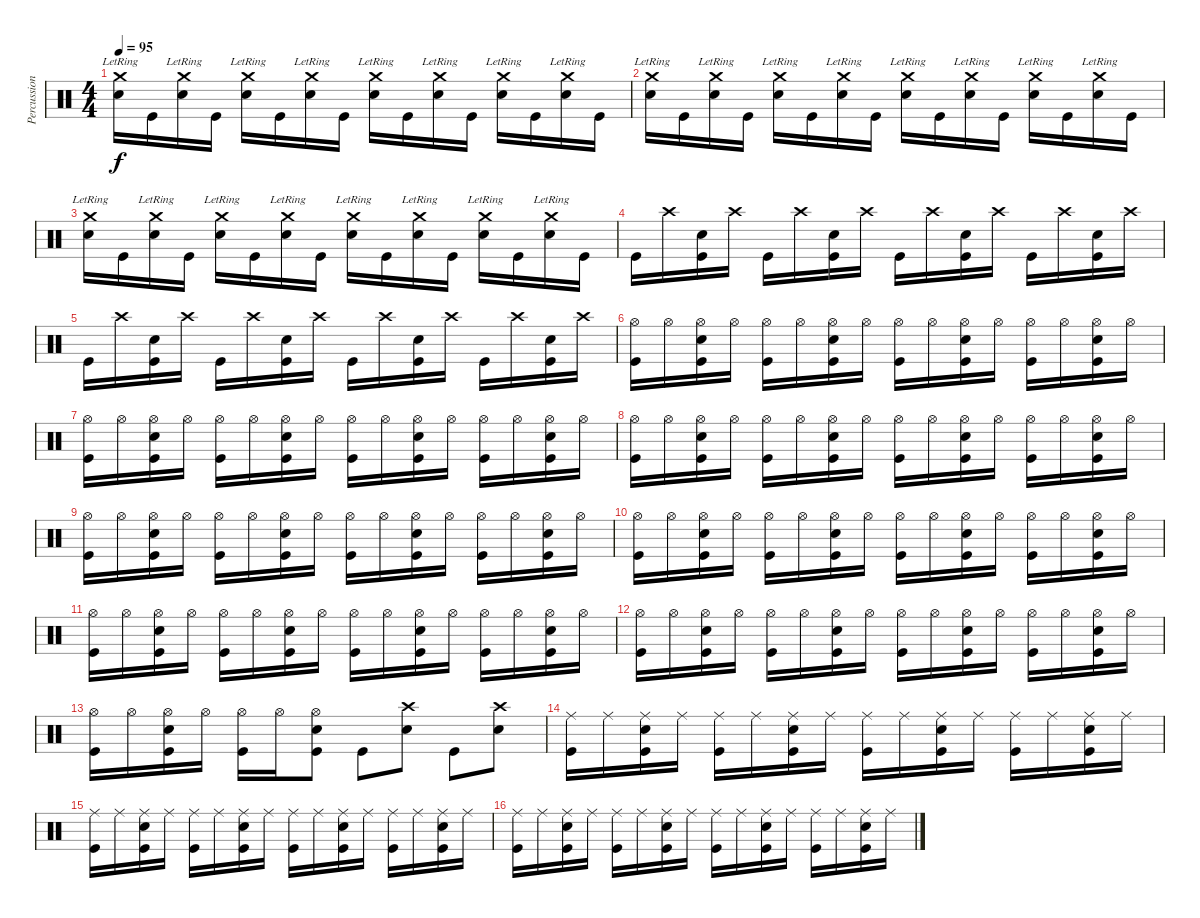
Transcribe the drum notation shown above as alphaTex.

\track ("Percussion" "Percussion") {instrument percussion}
\staff {score}
\articulation defaults
\ts (4 4)
\tempo 95
\clef neutral
\ks c
("Crash medium (hit)"{lr} "Snare (hit) 2").16{dy f} "Kick (hit)".16 ("Crash medium (hit)"{lr} "Snare (hit) 2").16 "Kick (hit)".16 ("Crash medium (hit)"{lr} "Snare (hit) 2").16 "Kick (hit)".16 ("Crash medium (hit)"{lr} "Snare (hit) 2").16 "Kick (hit)".16 ("Crash medium (hit)"{lr} "Snare (hit) 2").16 "Kick (hit)".16 ("Crash medium (hit)"{lr} "Snare (hit) 2").16 "Kick (hit)".16 ("Crash medium (hit)"{lr} "Snare (hit) 2").16 "Kick (hit)".16 ("Crash medium (hit)"{lr} "Snare (hit) 2").16 "Kick (hit)".16 |
("Crash medium (hit)"{lr} "Snare (hit) 2").16 "Kick (hit)".16 ("Crash medium (hit)"{lr} "Snare (hit) 2").16 "Kick (hit)".16 ("Crash medium (hit)"{lr} "Snare (hit) 2").16 "Kick (hit)".16 ("Crash medium (hit)"{lr} "Snare (hit) 2").16 "Kick (hit)".16 ("Crash medium (hit)"{lr} "Snare (hit) 2").16 "Kick (hit)".16 ("Crash medium (hit)"{lr} "Snare (hit) 2").16 "Kick (hit)".16 ("Crash medium (hit)"{lr} "Snare (hit) 2").16 "Kick (hit)".16 ("Crash medium (hit)"{lr} "Snare (hit) 2").16 "Kick (hit)".16 |
("Crash medium (hit)"{lr} "Snare (hit) 2").16 "Kick (hit)".16 ("Crash medium (hit)"{lr} "Snare (hit) 2").16 "Kick (hit)".16 ("Crash medium (hit)"{lr} "Snare (hit) 2").16 "Kick (hit)".16 ("Crash medium (hit)"{lr} "Snare (hit) 2").16 "Kick (hit)".16 ("Crash medium (hit)"{lr} "Snare (hit) 2").16 "Kick (hit)".16 ("Crash medium (hit)"{lr} "Snare (hit) 2").16 "Kick (hit)".16 ("Crash medium (hit)"{lr} "Snare (hit) 2").16 "Kick (hit)".16 ("Crash medium (hit)"{lr} "Snare (hit) 2").16 "Kick (hit)".16 |
"Kick (hit)".16 "Crash high (hit)".16 ("Snare (hit) 2" "Kick (hit)").16 "Crash high (hit)".16 "Kick (hit)".16 "Crash high (hit)".16 ("Snare (hit) 2" "Kick (hit)").16 "Crash high (hit)".16 "Kick (hit)".16 "Crash high (hit)".16 ("Snare (hit) 2" "Kick (hit)").16 "Crash high (hit)".16 "Kick (hit)".16 "Crash high (hit)".16 ("Snare (hit) 2" "Kick (hit)").16 "Crash high (hit)".16 |
"Kick (hit)".16 "Crash high (hit)".16 ("Snare (hit) 2" "Kick (hit)").16 "Crash high (hit)".16 "Kick (hit)".16 "Crash high (hit)".16 ("Snare (hit) 2" "Kick (hit)").16 "Crash high (hit)".16 "Kick (hit)".16 "Crash high (hit)".16 ("Snare (hit) 2" "Kick (hit)").16 "Crash high (hit)".16 "Kick (hit)".16 "Crash high (hit)".16 ("Snare (hit) 2" "Kick (hit)").16 "Crash high (hit)".16 |
("Hi-Hat (open)" "Kick (hit)").16 "Hi-Hat (open)".16 ("Hi-Hat (open)" "Snare (hit) 2" "Kick (hit)").16 "Hi-Hat (open)".16 ("Hi-Hat (open)" "Kick (hit)").16 "Hi-Hat (open)".16 ("Hi-Hat (open)" "Snare (hit) 2" "Kick (hit)").16 "Hi-Hat (open)".16 ("Hi-Hat (open)" "Kick (hit)").16 "Hi-Hat (open)".16 ("Hi-Hat (open)" "Snare (hit) 2" "Kick (hit)").16 "Hi-Hat (open)".16 ("Hi-Hat (open)" "Kick (hit)").16 "Hi-Hat (open)".16 ("Hi-Hat (open)" "Snare (hit) 2" "Kick (hit)").16 "Hi-Hat (open)".16 |
("Hi-Hat (open)" "Kick (hit)").16 "Hi-Hat (open)".16 ("Hi-Hat (open)" "Snare (hit) 2" "Kick (hit)").16 "Hi-Hat (open)".16 ("Hi-Hat (open)" "Kick (hit)").16 "Hi-Hat (open)".16 ("Hi-Hat (open)" "Snare (hit) 2" "Kick (hit)").16 "Hi-Hat (open)".16 ("Hi-Hat (open)" "Kick (hit)").16 "Hi-Hat (open)".16 ("Hi-Hat (open)" "Snare (hit) 2" "Kick (hit)").16 "Hi-Hat (open)".16 ("Hi-Hat (open)" "Kick (hit)").16 "Hi-Hat (open)".16 ("Hi-Hat (open)" "Snare (hit) 2" "Kick (hit)").16 "Hi-Hat (open)".16 |
("Hi-Hat (open)" "Kick (hit)").16 "Hi-Hat (open)".16 ("Hi-Hat (open)" "Snare (hit) 2" "Kick (hit)").16 "Hi-Hat (open)".16 ("Hi-Hat (open)" "Kick (hit)").16 "Hi-Hat (open)".16 ("Hi-Hat (open)" "Snare (hit) 2" "Kick (hit)").16 "Hi-Hat (open)".16 ("Hi-Hat (open)" "Kick (hit)").16 "Hi-Hat (open)".16 ("Hi-Hat (open)" "Snare (hit) 2" "Kick (hit)").16 "Hi-Hat (open)".16 ("Hi-Hat (open)" "Kick (hit)").16 "Hi-Hat (open)".16 ("Hi-Hat (open)" "Snare (hit) 2" "Kick (hit)").16 "Hi-Hat (open)".16 |
("Hi-Hat (open)" "Kick (hit)").16 "Hi-Hat (open)".16 ("Hi-Hat (open)" "Snare (hit) 2" "Kick (hit)").16 "Hi-Hat (open)".16 ("Hi-Hat (open)" "Kick (hit)").16 "Hi-Hat (open)".16 ("Hi-Hat (open)" "Snare (hit) 2" "Kick (hit)").16 "Hi-Hat (open)".16 ("Hi-Hat (open)" "Kick (hit)").16 "Hi-Hat (open)".16 ("Hi-Hat (open)" "Snare (hit) 2" "Kick (hit)").16 "Hi-Hat (open)".16 ("Hi-Hat (open)" "Kick (hit)").16 "Hi-Hat (open)".16 ("Hi-Hat (open)" "Snare (hit) 2" "Kick (hit)").16 "Hi-Hat (open)".16 |
("Hi-Hat (open)" "Kick (hit)").16 "Hi-Hat (open)".16 ("Hi-Hat (open)" "Snare (hit) 2" "Kick (hit)").16 "Hi-Hat (open)".16 ("Hi-Hat (open)" "Kick (hit)").16 "Hi-Hat (open)".16 ("Hi-Hat (open)" "Snare (hit) 2" "Kick (hit)").16 "Hi-Hat (open)".16 ("Hi-Hat (open)" "Kick (hit)").16 "Hi-Hat (open)".16 ("Hi-Hat (open)" "Snare (hit) 2" "Kick (hit)").16 "Hi-Hat (open)".16 ("Hi-Hat (open)" "Kick (hit)").16 "Hi-Hat (open)".16 ("Hi-Hat (open)" "Snare (hit) 2" "Kick (hit)").16 "Hi-Hat (open)".16 |
("Hi-Hat (open)" "Kick (hit)").16 "Hi-Hat (open)".16 ("Hi-Hat (open)" "Snare (hit) 2" "Kick (hit)").16 "Hi-Hat (open)".16 ("Hi-Hat (open)" "Kick (hit)").16 "Hi-Hat (open)".16 ("Hi-Hat (open)" "Snare (hit) 2" "Kick (hit)").16 "Hi-Hat (open)".16 ("Hi-Hat (open)" "Kick (hit)").16 "Hi-Hat (open)".16 ("Hi-Hat (open)" "Snare (hit) 2" "Kick (hit)").16 "Hi-Hat (open)".16 ("Hi-Hat (open)" "Kick (hit)").16 "Hi-Hat (open)".16 ("Hi-Hat (open)" "Snare (hit) 2" "Kick (hit)").16 "Hi-Hat (open)".16 |
("Hi-Hat (open)" "Kick (hit)").16 "Hi-Hat (open)".16 ("Hi-Hat (open)" "Snare (hit) 2" "Kick (hit)").16 "Hi-Hat (open)".16 ("Hi-Hat (open)" "Kick (hit)").16 "Hi-Hat (open)".16 ("Hi-Hat (open)" "Snare (hit) 2" "Kick (hit)").16 "Hi-Hat (open)".16 ("Hi-Hat (open)" "Kick (hit)").16 "Hi-Hat (open)".16 ("Hi-Hat (open)" "Snare (hit) 2" "Kick (hit)").16 "Hi-Hat (open)".16 ("Hi-Hat (open)" "Kick (hit)").16 "Hi-Hat (open)".16 ("Hi-Hat (open)" "Snare (hit) 2" "Kick (hit)").16 "Hi-Hat (open)".16 |
("Hi-Hat (open)" "Kick (hit)").16 "Hi-Hat (open)".16 ("Hi-Hat (open)" "Snare (hit) 2" "Kick (hit)").16 "Hi-Hat (open)".16 ("Hi-Hat (open)" "Kick (hit)").16 "Hi-Hat (open)".16 ("Hi-Hat (open)" "Snare (hit) 2" "Kick (hit)").8 "Kick (hit)".8 ("Crash high (hit)" "Snare (hit) 2").8 "Kick (hit)".8 ("Crash high (hit)" "Snare (hit) 2").8 |
("Ride (middle)" "Kick (hit)").16 "Ride (middle)".16 ("Ride (middle)" "Snare (hit) 2" "Kick (hit)").16 "Ride (middle)".16 ("Ride (middle)" "Kick (hit)").16 "Ride (middle)".16 ("Ride (middle)" "Snare (hit) 2" "Kick (hit)").16 "Ride (middle)".16 ("Ride (middle)" "Kick (hit)").16 "Ride (middle)".16 ("Ride (middle)" "Snare (hit) 2" "Kick (hit)").16 "Ride (middle)".16 ("Ride (middle)" "Kick (hit)").16 "Ride (middle)".16 ("Ride (middle)" "Snare (hit) 2" "Kick (hit)").16 "Ride (middle)".16 |
("Ride (middle)" "Kick (hit)").16 "Ride (middle)".16 ("Ride (middle)" "Snare (hit) 2" "Kick (hit)").16 "Ride (middle)".16 ("Ride (middle)" "Kick (hit)").16 "Ride (middle)".16 ("Ride (middle)" "Snare (hit) 2" "Kick (hit)").16 "Ride (middle)".16 ("Ride (middle)" "Kick (hit)").16 "Ride (middle)".16 ("Ride (middle)" "Snare (hit) 2" "Kick (hit)").16 "Ride (middle)".16 ("Ride (middle)" "Kick (hit)").16 "Ride (middle)".16 ("Ride (middle)" "Snare (hit) 2" "Kick (hit)").16 "Ride (middle)".16 |
("Ride (middle)" "Kick (hit)").16 "Ride (middle)".16 ("Ride (middle)" "Snare (hit) 2" "Kick (hit)").16 "Ride (middle)".16 ("Ride (middle)" "Kick (hit)").16 "Ride (middle)".16 ("Ride (middle)" "Snare (hit) 2" "Kick (hit)").16 "Ride (middle)".16 ("Ride (middle)" "Kick (hit)").16 "Ride (middle)".16 ("Ride (middle)" "Snare (hit) 2" "Kick (hit)").16 "Ride (middle)".16 ("Ride (middle)" "Kick (hit)").16 "Ride (middle)".16 ("Ride (middle)" "Snare (hit) 2" "Kick (hit)").16 "Ride (middle)".16
